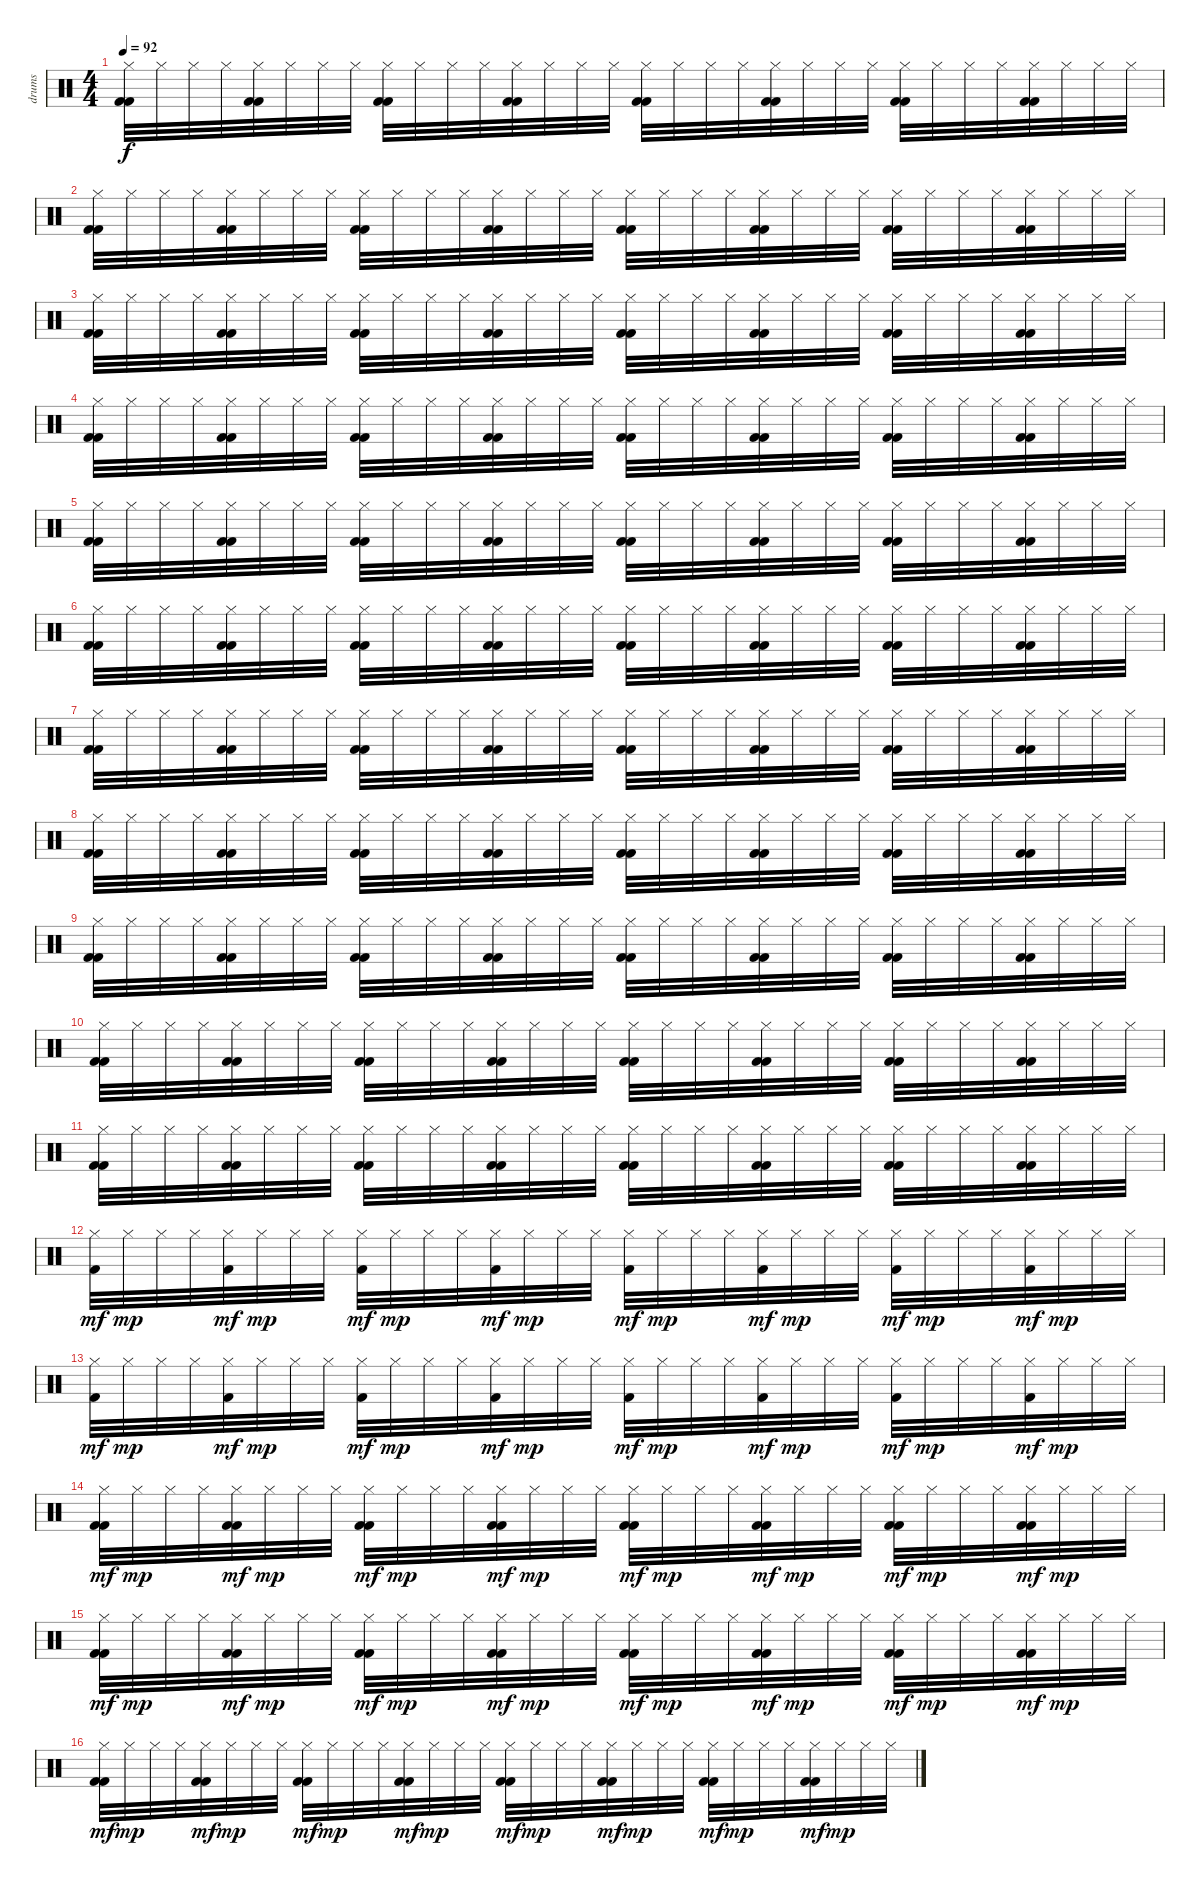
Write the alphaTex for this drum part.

\track ("drums" "drums") {instrument percussion}
\staff {score}
\articulation defaults
\ts (4 4)
\tempo 92
\clef neutral
\ks c
("Hi-Hat (closed)" "Kick (hit) 2" "Kick (hit) 2").32{dy f} "Hi-Hat (closed)".32 "Hi-Hat (closed)".32 "Hi-Hat (closed)".32 ("Hi-Hat (closed)" "Kick (hit) 2" "Kick (hit) 2").32 "Hi-Hat (closed)".32 "Hi-Hat (closed)".32 "Hi-Hat (closed)".32 ("Hi-Hat (closed)" "Kick (hit) 2" "Kick (hit) 2").32 "Hi-Hat (closed)".32 "Hi-Hat (closed)".32 "Hi-Hat (closed)".32 ("Hi-Hat (closed)" "Kick (hit) 2" "Kick (hit) 2").32 "Hi-Hat (closed)".32 "Hi-Hat (closed)".32 "Hi-Hat (closed)".32 ("Hi-Hat (closed)" "Kick (hit) 2" "Kick (hit) 2").32 "Hi-Hat (closed)".32 "Hi-Hat (closed)".32 "Hi-Hat (closed)".32 ("Hi-Hat (closed)" "Kick (hit) 2" "Kick (hit) 2").32 "Hi-Hat (closed)".32 "Hi-Hat (closed)".32 "Hi-Hat (closed)".32 ("Hi-Hat (closed)" "Kick (hit) 2" "Kick (hit) 2").32 "Hi-Hat (closed)".32 "Hi-Hat (closed)".32 "Hi-Hat (closed)".32 ("Hi-Hat (closed)" "Kick (hit) 2" "Kick (hit) 2").32 "Hi-Hat (closed)".32 "Hi-Hat (closed)".32 "Hi-Hat (closed)".32 |
("Hi-Hat (closed)" "Kick (hit) 2" "Kick (hit) 2").32 "Hi-Hat (closed)".32 "Hi-Hat (closed)".32 "Hi-Hat (closed)".32 ("Hi-Hat (closed)" "Kick (hit) 2" "Kick (hit) 2").32 "Hi-Hat (closed)".32 "Hi-Hat (closed)".32 "Hi-Hat (closed)".32 ("Hi-Hat (closed)" "Kick (hit) 2" "Kick (hit) 2").32 "Hi-Hat (closed)".32 "Hi-Hat (closed)".32 "Hi-Hat (closed)".32 ("Hi-Hat (closed)" "Kick (hit) 2" "Kick (hit) 2").32 "Hi-Hat (closed)".32 "Hi-Hat (closed)".32 "Hi-Hat (closed)".32 ("Hi-Hat (closed)" "Kick (hit) 2" "Kick (hit) 2").32 "Hi-Hat (closed)".32 "Hi-Hat (closed)".32 "Hi-Hat (closed)".32 ("Hi-Hat (closed)" "Kick (hit) 2" "Kick (hit) 2").32 "Hi-Hat (closed)".32 "Hi-Hat (closed)".32 "Hi-Hat (closed)".32 ("Hi-Hat (closed)" "Kick (hit) 2" "Kick (hit) 2").32 "Hi-Hat (closed)".32 "Hi-Hat (closed)".32 "Hi-Hat (closed)".32 ("Hi-Hat (closed)" "Kick (hit) 2" "Kick (hit) 2").32 "Hi-Hat (closed)".32 "Hi-Hat (closed)".32 "Hi-Hat (closed)".32 |
("Hi-Hat (closed)" "Kick (hit) 2" "Kick (hit) 2").32 "Hi-Hat (closed)".32 "Hi-Hat (closed)".32 "Hi-Hat (closed)".32 ("Hi-Hat (closed)" "Kick (hit) 2" "Kick (hit) 2").32 "Hi-Hat (closed)".32 "Hi-Hat (closed)".32 "Hi-Hat (closed)".32 ("Hi-Hat (closed)" "Kick (hit) 2" "Kick (hit) 2").32 "Hi-Hat (closed)".32 "Hi-Hat (closed)".32 "Hi-Hat (closed)".32 ("Hi-Hat (closed)" "Kick (hit) 2" "Kick (hit) 2").32 "Hi-Hat (closed)".32 "Hi-Hat (closed)".32 "Hi-Hat (closed)".32 ("Hi-Hat (closed)" "Kick (hit) 2" "Kick (hit) 2").32 "Hi-Hat (closed)".32 "Hi-Hat (closed)".32 "Hi-Hat (closed)".32 ("Hi-Hat (closed)" "Kick (hit) 2" "Kick (hit) 2").32 "Hi-Hat (closed)".32 "Hi-Hat (closed)".32 "Hi-Hat (closed)".32 ("Hi-Hat (closed)" "Kick (hit) 2" "Kick (hit) 2").32 "Hi-Hat (closed)".32 "Hi-Hat (closed)".32 "Hi-Hat (closed)".32 ("Hi-Hat (closed)" "Kick (hit) 2" "Kick (hit) 2").32 "Hi-Hat (closed)".32 "Hi-Hat (closed)".32 "Hi-Hat (closed)".32 |
("Hi-Hat (closed)" "Kick (hit) 2" "Kick (hit) 2").32 "Hi-Hat (closed)".32 "Hi-Hat (closed)".32 "Hi-Hat (closed)".32 ("Hi-Hat (closed)" "Kick (hit) 2" "Kick (hit) 2").32 "Hi-Hat (closed)".32 "Hi-Hat (closed)".32 "Hi-Hat (closed)".32 ("Hi-Hat (closed)" "Kick (hit) 2" "Kick (hit) 2").32 "Hi-Hat (closed)".32 "Hi-Hat (closed)".32 "Hi-Hat (closed)".32 ("Hi-Hat (closed)" "Kick (hit) 2" "Kick (hit) 2").32 "Hi-Hat (closed)".32 "Hi-Hat (closed)".32 "Hi-Hat (closed)".32 ("Hi-Hat (closed)" "Kick (hit) 2" "Kick (hit) 2").32 "Hi-Hat (closed)".32 "Hi-Hat (closed)".32 "Hi-Hat (closed)".32 ("Hi-Hat (closed)" "Kick (hit) 2" "Kick (hit) 2").32 "Hi-Hat (closed)".32 "Hi-Hat (closed)".32 "Hi-Hat (closed)".32 ("Hi-Hat (closed)" "Kick (hit) 2" "Kick (hit) 2").32 "Hi-Hat (closed)".32 "Hi-Hat (closed)".32 "Hi-Hat (closed)".32 ("Hi-Hat (closed)" "Kick (hit) 2" "Kick (hit) 2").32 "Hi-Hat (closed)".32 "Hi-Hat (closed)".32 "Hi-Hat (closed)".32 |
("Hi-Hat (closed)" "Kick (hit) 2" "Kick (hit) 2").32 "Hi-Hat (closed)".32 "Hi-Hat (closed)".32 "Hi-Hat (closed)".32 ("Hi-Hat (closed)" "Kick (hit) 2" "Kick (hit) 2").32 "Hi-Hat (closed)".32 "Hi-Hat (closed)".32 "Hi-Hat (closed)".32 ("Hi-Hat (closed)" "Kick (hit) 2" "Kick (hit) 2").32 "Hi-Hat (closed)".32 "Hi-Hat (closed)".32 "Hi-Hat (closed)".32 ("Hi-Hat (closed)" "Kick (hit) 2" "Kick (hit) 2").32 "Hi-Hat (closed)".32 "Hi-Hat (closed)".32 "Hi-Hat (closed)".32 ("Hi-Hat (closed)" "Kick (hit) 2" "Kick (hit) 2").32 "Hi-Hat (closed)".32 "Hi-Hat (closed)".32 "Hi-Hat (closed)".32 ("Hi-Hat (closed)" "Kick (hit) 2" "Kick (hit) 2").32 "Hi-Hat (closed)".32 "Hi-Hat (closed)".32 "Hi-Hat (closed)".32 ("Hi-Hat (closed)" "Kick (hit) 2" "Kick (hit) 2").32 "Hi-Hat (closed)".32 "Hi-Hat (closed)".32 "Hi-Hat (closed)".32 ("Hi-Hat (closed)" "Kick (hit) 2" "Kick (hit) 2").32 "Hi-Hat (closed)".32 "Hi-Hat (closed)".32 "Hi-Hat (closed)".32 |
("Hi-Hat (closed)" "Kick (hit) 2" "Kick (hit) 2").32 "Hi-Hat (closed)".32 "Hi-Hat (closed)".32 "Hi-Hat (closed)".32 ("Hi-Hat (closed)" "Kick (hit) 2" "Kick (hit) 2").32 "Hi-Hat (closed)".32 "Hi-Hat (closed)".32 "Hi-Hat (closed)".32 ("Hi-Hat (closed)" "Kick (hit) 2" "Kick (hit) 2").32 "Hi-Hat (closed)".32 "Hi-Hat (closed)".32 "Hi-Hat (closed)".32 ("Hi-Hat (closed)" "Kick (hit) 2" "Kick (hit) 2").32 "Hi-Hat (closed)".32 "Hi-Hat (closed)".32 "Hi-Hat (closed)".32 ("Hi-Hat (closed)" "Kick (hit) 2" "Kick (hit) 2").32 "Hi-Hat (closed)".32 "Hi-Hat (closed)".32 "Hi-Hat (closed)".32 ("Hi-Hat (closed)" "Kick (hit) 2" "Kick (hit) 2").32 "Hi-Hat (closed)".32 "Hi-Hat (closed)".32 "Hi-Hat (closed)".32 ("Hi-Hat (closed)" "Kick (hit) 2" "Kick (hit) 2").32 "Hi-Hat (closed)".32 "Hi-Hat (closed)".32 "Hi-Hat (closed)".32 ("Hi-Hat (closed)" "Kick (hit) 2" "Kick (hit) 2").32 "Hi-Hat (closed)".32 "Hi-Hat (closed)".32 "Hi-Hat (closed)".32 |
("Hi-Hat (closed)" "Kick (hit) 2" "Kick (hit) 2").32 "Hi-Hat (closed)".32 "Hi-Hat (closed)".32 "Hi-Hat (closed)".32 ("Hi-Hat (closed)" "Kick (hit) 2" "Kick (hit) 2").32 "Hi-Hat (closed)".32 "Hi-Hat (closed)".32 "Hi-Hat (closed)".32 ("Hi-Hat (closed)" "Kick (hit) 2" "Kick (hit) 2").32 "Hi-Hat (closed)".32 "Hi-Hat (closed)".32 "Hi-Hat (closed)".32 ("Hi-Hat (closed)" "Kick (hit) 2" "Kick (hit) 2").32 "Hi-Hat (closed)".32 "Hi-Hat (closed)".32 "Hi-Hat (closed)".32 ("Hi-Hat (closed)" "Kick (hit) 2" "Kick (hit) 2").32 "Hi-Hat (closed)".32 "Hi-Hat (closed)".32 "Hi-Hat (closed)".32 ("Hi-Hat (closed)" "Kick (hit) 2" "Kick (hit) 2").32 "Hi-Hat (closed)".32 "Hi-Hat (closed)".32 "Hi-Hat (closed)".32 ("Hi-Hat (closed)" "Kick (hit) 2" "Kick (hit) 2").32 "Hi-Hat (closed)".32 "Hi-Hat (closed)".32 "Hi-Hat (closed)".32 ("Hi-Hat (closed)" "Kick (hit) 2" "Kick (hit) 2").32 "Hi-Hat (closed)".32 "Hi-Hat (closed)".32 "Hi-Hat (closed)".32 |
("Hi-Hat (closed)" "Kick (hit) 2" "Kick (hit) 2").32 "Hi-Hat (closed)".32 "Hi-Hat (closed)".32 "Hi-Hat (closed)".32 ("Hi-Hat (closed)" "Kick (hit) 2" "Kick (hit) 2").32 "Hi-Hat (closed)".32 "Hi-Hat (closed)".32 "Hi-Hat (closed)".32 ("Hi-Hat (closed)" "Kick (hit) 2" "Kick (hit) 2").32 "Hi-Hat (closed)".32 "Hi-Hat (closed)".32 "Hi-Hat (closed)".32 ("Hi-Hat (closed)" "Kick (hit) 2" "Kick (hit) 2").32 "Hi-Hat (closed)".32 "Hi-Hat (closed)".32 "Hi-Hat (closed)".32 ("Hi-Hat (closed)" "Kick (hit) 2" "Kick (hit) 2").32 "Hi-Hat (closed)".32 "Hi-Hat (closed)".32 "Hi-Hat (closed)".32 ("Hi-Hat (closed)" "Kick (hit) 2" "Kick (hit) 2").32 "Hi-Hat (closed)".32 "Hi-Hat (closed)".32 "Hi-Hat (closed)".32 ("Hi-Hat (closed)" "Kick (hit) 2" "Kick (hit) 2").32 "Hi-Hat (closed)".32 "Hi-Hat (closed)".32 "Hi-Hat (closed)".32 ("Hi-Hat (closed)" "Kick (hit) 2" "Kick (hit) 2").32 "Hi-Hat (closed)".32 "Hi-Hat (closed)".32 "Hi-Hat (closed)".32 |
("Hi-Hat (closed)" "Kick (hit) 2" "Kick (hit) 2").32 "Hi-Hat (closed)".32 "Hi-Hat (closed)".32 "Hi-Hat (closed)".32 ("Hi-Hat (closed)" "Kick (hit) 2" "Kick (hit) 2").32 "Hi-Hat (closed)".32 "Hi-Hat (closed)".32 "Hi-Hat (closed)".32 ("Hi-Hat (closed)" "Kick (hit) 2" "Kick (hit) 2").32 "Hi-Hat (closed)".32 "Hi-Hat (closed)".32 "Hi-Hat (closed)".32 ("Hi-Hat (closed)" "Kick (hit) 2" "Kick (hit) 2").32 "Hi-Hat (closed)".32 "Hi-Hat (closed)".32 "Hi-Hat (closed)".32 ("Hi-Hat (closed)" "Kick (hit) 2" "Kick (hit) 2").32 "Hi-Hat (closed)".32 "Hi-Hat (closed)".32 "Hi-Hat (closed)".32 ("Hi-Hat (closed)" "Kick (hit) 2" "Kick (hit) 2").32 "Hi-Hat (closed)".32 "Hi-Hat (closed)".32 "Hi-Hat (closed)".32 ("Hi-Hat (closed)" "Kick (hit) 2" "Kick (hit) 2").32 "Hi-Hat (closed)".32 "Hi-Hat (closed)".32 "Hi-Hat (closed)".32 ("Hi-Hat (closed)" "Kick (hit) 2" "Kick (hit) 2").32 "Hi-Hat (closed)".32 "Hi-Hat (closed)".32 "Hi-Hat (closed)".32 |
("Hi-Hat (closed)" "Kick (hit) 2" "Kick (hit) 2").32 "Hi-Hat (closed)".32 "Hi-Hat (closed)".32 "Hi-Hat (closed)".32 ("Hi-Hat (closed)" "Kick (hit) 2" "Kick (hit) 2").32 "Hi-Hat (closed)".32 "Hi-Hat (closed)".32 "Hi-Hat (closed)".32 ("Hi-Hat (closed)" "Kick (hit) 2" "Kick (hit) 2").32 "Hi-Hat (closed)".32 "Hi-Hat (closed)".32 "Hi-Hat (closed)".32 ("Hi-Hat (closed)" "Kick (hit) 2" "Kick (hit) 2").32 "Hi-Hat (closed)".32 "Hi-Hat (closed)".32 "Hi-Hat (closed)".32 ("Hi-Hat (closed)" "Kick (hit) 2" "Kick (hit) 2").32 "Hi-Hat (closed)".32 "Hi-Hat (closed)".32 "Hi-Hat (closed)".32 ("Hi-Hat (closed)" "Kick (hit) 2" "Kick (hit) 2").32 "Hi-Hat (closed)".32 "Hi-Hat (closed)".32 "Hi-Hat (closed)".32 ("Hi-Hat (closed)" "Kick (hit) 2" "Kick (hit) 2").32 "Hi-Hat (closed)".32 "Hi-Hat (closed)".32 "Hi-Hat (closed)".32 ("Hi-Hat (closed)" "Kick (hit) 2" "Kick (hit) 2").32 "Hi-Hat (closed)".32 "Hi-Hat (closed)".32 "Hi-Hat (closed)".32 |
("Hi-Hat (closed)" "Kick (hit) 2" "Kick (hit) 2").32 "Hi-Hat (closed)".32 "Hi-Hat (closed)".32 "Hi-Hat (closed)".32 ("Hi-Hat (closed)" "Kick (hit) 2" "Kick (hit) 2").32 "Hi-Hat (closed)".32 "Hi-Hat (closed)".32 "Hi-Hat (closed)".32 ("Hi-Hat (closed)" "Kick (hit) 2" "Kick (hit) 2").32 "Hi-Hat (closed)".32 "Hi-Hat (closed)".32 "Hi-Hat (closed)".32 ("Hi-Hat (closed)" "Kick (hit) 2" "Kick (hit) 2").32 "Hi-Hat (closed)".32 "Hi-Hat (closed)".32 "Hi-Hat (closed)".32 ("Hi-Hat (closed)" "Kick (hit) 2" "Kick (hit) 2").32 "Hi-Hat (closed)".32 "Hi-Hat (closed)".32 "Hi-Hat (closed)".32 ("Hi-Hat (closed)" "Kick (hit) 2" "Kick (hit) 2").32 "Hi-Hat (closed)".32 "Hi-Hat (closed)".32 "Hi-Hat (closed)".32 ("Hi-Hat (closed)" "Kick (hit) 2" "Kick (hit) 2").32 "Hi-Hat (closed)".32 "Hi-Hat (closed)".32 "Hi-Hat (closed)".32 ("Hi-Hat (closed)" "Kick (hit) 2" "Kick (hit) 2").32 "Hi-Hat (closed)".32 "Hi-Hat (closed)".32 "Hi-Hat (closed)".32 |
("Hi-Hat (closed)" "Kick (hit) 2").32{dy mf volume 6} "Hi-Hat (closed)".32{dy mp} "Hi-Hat (closed)".32 "Hi-Hat (closed)".32 ("Hi-Hat (closed)" "Kick (hit) 2").32{dy mf} "Hi-Hat (closed)".32{dy mp} "Hi-Hat (closed)".32 "Hi-Hat (closed)".32 ("Hi-Hat (closed)" "Kick (hit) 2").32{dy mf} "Hi-Hat (closed)".32{dy mp} "Hi-Hat (closed)".32 "Hi-Hat (closed)".32 ("Hi-Hat (closed)" "Kick (hit) 2").32{dy mf} "Hi-Hat (closed)".32{dy mp} "Hi-Hat (closed)".32 "Hi-Hat (closed)".32 ("Hi-Hat (closed)" "Kick (hit) 2").32{dy mf} "Hi-Hat (closed)".32{dy mp} "Hi-Hat (closed)".32 "Hi-Hat (closed)".32 ("Hi-Hat (closed)" "Kick (hit) 2").32{dy mf} "Hi-Hat (closed)".32{dy mp} "Hi-Hat (closed)".32 "Hi-Hat (closed)".32 ("Hi-Hat (closed)" "Kick (hit) 2").32{dy mf} "Hi-Hat (closed)".32{dy mp} "Hi-Hat (closed)".32 "Hi-Hat (closed)".32 ("Hi-Hat (closed)" "Kick (hit) 2").32{dy mf} "Hi-Hat (closed)".32{dy mp} "Hi-Hat (closed)".32 "Hi-Hat (closed)".32 |
("Hi-Hat (closed)" "Kick (hit) 2").32{dy mf} "Hi-Hat (closed)".32{dy mp} "Hi-Hat (closed)".32 "Hi-Hat (closed)".32 ("Hi-Hat (closed)" "Kick (hit) 2").32{dy mf} "Hi-Hat (closed)".32{dy mp} "Hi-Hat (closed)".32 "Hi-Hat (closed)".32 ("Hi-Hat (closed)" "Kick (hit) 2").32{dy mf} "Hi-Hat (closed)".32{dy mp} "Hi-Hat (closed)".32 "Hi-Hat (closed)".32 ("Hi-Hat (closed)" "Kick (hit) 2").32{dy mf} "Hi-Hat (closed)".32{dy mp} "Hi-Hat (closed)".32 "Hi-Hat (closed)".32 ("Hi-Hat (closed)" "Kick (hit) 2").32{dy mf} "Hi-Hat (closed)".32{dy mp} "Hi-Hat (closed)".32 "Hi-Hat (closed)".32 ("Hi-Hat (closed)" "Kick (hit) 2").32{dy mf} "Hi-Hat (closed)".32{dy mp} "Hi-Hat (closed)".32 "Hi-Hat (closed)".32 ("Hi-Hat (closed)" "Kick (hit) 2").32{dy mf} "Hi-Hat (closed)".32{dy mp} "Hi-Hat (closed)".32 "Hi-Hat (closed)".32 ("Hi-Hat (closed)" "Kick (hit) 2").32{dy mf} "Hi-Hat (closed)".32{dy mp} "Hi-Hat (closed)".32 "Hi-Hat (closed)".32{volume 11} |
("Hi-Hat (closed)" "Kick (hit) 2" "Kick (hit) 2").32{dy mf volume 8} "Hi-Hat (closed)".32{dy mp volume 10} "Hi-Hat (closed)".32 "Hi-Hat (closed)".32 ("Hi-Hat (closed)" "Kick (hit) 2" "Kick (hit) 2").32{dy mf} "Hi-Hat (closed)".32{dy mp} "Hi-Hat (closed)".32 "Hi-Hat (closed)".32 ("Hi-Hat (closed)" "Kick (hit) 2" "Kick (hit) 2").32{dy mf} "Hi-Hat (closed)".32{dy mp} "Hi-Hat (closed)".32 "Hi-Hat (closed)".32 ("Hi-Hat (closed)" "Kick (hit) 2" "Kick (hit) 2").32{dy mf} "Hi-Hat (closed)".32{dy mp} "Hi-Hat (closed)".32 "Hi-Hat (closed)".32 ("Hi-Hat (closed)" "Kick (hit) 2" "Kick (hit) 2").32{dy mf} "Hi-Hat (closed)".32{dy mp} "Hi-Hat (closed)".32 "Hi-Hat (closed)".32 ("Hi-Hat (closed)" "Kick (hit) 2" "Kick (hit) 2").32{dy mf} "Hi-Hat (closed)".32{dy mp} "Hi-Hat (closed)".32 "Hi-Hat (closed)".32 ("Hi-Hat (closed)" "Kick (hit) 2" "Kick (hit) 2").32{dy mf} "Hi-Hat (closed)".32{dy mp} "Hi-Hat (closed)".32 "Hi-Hat (closed)".32 ("Hi-Hat (closed)" "Kick (hit) 2" "Kick (hit) 2").32{dy mf} "Hi-Hat (closed)".32{dy mp} "Hi-Hat (closed)".32 "Hi-Hat (closed)".32 |
("Hi-Hat (closed)" "Kick (hit) 2" "Kick (hit) 2").32{dy mf} "Hi-Hat (closed)".32{dy mp} "Hi-Hat (closed)".32 "Hi-Hat (closed)".32 ("Hi-Hat (closed)" "Kick (hit) 2" "Kick (hit) 2").32{dy mf} "Hi-Hat (closed)".32{dy mp} "Hi-Hat (closed)".32 "Hi-Hat (closed)".32 ("Hi-Hat (closed)" "Kick (hit) 2" "Kick (hit) 2").32{dy mf} "Hi-Hat (closed)".32{dy mp} "Hi-Hat (closed)".32 "Hi-Hat (closed)".32 ("Hi-Hat (closed)" "Kick (hit) 2" "Kick (hit) 2").32{dy mf} "Hi-Hat (closed)".32{dy mp} "Hi-Hat (closed)".32 "Hi-Hat (closed)".32 ("Hi-Hat (closed)" "Kick (hit) 2" "Kick (hit) 2").32{dy mf} "Hi-Hat (closed)".32{dy mp} "Hi-Hat (closed)".32 "Hi-Hat (closed)".32 ("Hi-Hat (closed)" "Kick (hit) 2" "Kick (hit) 2").32{dy mf} "Hi-Hat (closed)".32{dy mp} "Hi-Hat (closed)".32 "Hi-Hat (closed)".32 ("Hi-Hat (closed)" "Kick (hit) 2" "Kick (hit) 2").32{dy mf} "Hi-Hat (closed)".32{dy mp} "Hi-Hat (closed)".32 "Hi-Hat (closed)".32 ("Hi-Hat (closed)" "Kick (hit) 2" "Kick (hit) 2").32{dy mf} "Hi-Hat (closed)".32{dy mp} "Hi-Hat (closed)".32 "Hi-Hat (closed)".32 |
("Hi-Hat (closed)" "Kick (hit) 2" "Kick (hit) 2").32{dy mf} "Hi-Hat (closed)".32{dy mp} "Hi-Hat (closed)".32 "Hi-Hat (closed)".32 ("Hi-Hat (closed)" "Kick (hit) 2" "Kick (hit) 2").32{dy mf} "Hi-Hat (closed)".32{dy mp} "Hi-Hat (closed)".32 "Hi-Hat (closed)".32 ("Hi-Hat (closed)" "Kick (hit) 2" "Kick (hit) 2").32{dy mf} "Hi-Hat (closed)".32{dy mp} "Hi-Hat (closed)".32 "Hi-Hat (closed)".32 ("Hi-Hat (closed)" "Kick (hit) 2" "Kick (hit) 2").32{dy mf} "Hi-Hat (closed)".32{dy mp} "Hi-Hat (closed)".32 "Hi-Hat (closed)".32 ("Hi-Hat (closed)" "Kick (hit) 2" "Kick (hit) 2").32{dy mf} "Hi-Hat (closed)".32{dy mp} "Hi-Hat (closed)".32 "Hi-Hat (closed)".32 ("Hi-Hat (closed)" "Kick (hit) 2" "Kick (hit) 2").32{dy mf} "Hi-Hat (closed)".32{dy mp} "Hi-Hat (closed)".32 "Hi-Hat (closed)".32 ("Hi-Hat (closed)" "Kick (hit) 2" "Kick (hit) 2").32{dy mf} "Hi-Hat (closed)".32{dy mp} "Hi-Hat (closed)".32 "Hi-Hat (closed)".32 ("Hi-Hat (closed)" "Kick (hit) 2" "Kick (hit) 2").32{dy mf} "Hi-Hat (closed)".32{dy mp} "Hi-Hat (closed)".32 "Hi-Hat (closed)".32
